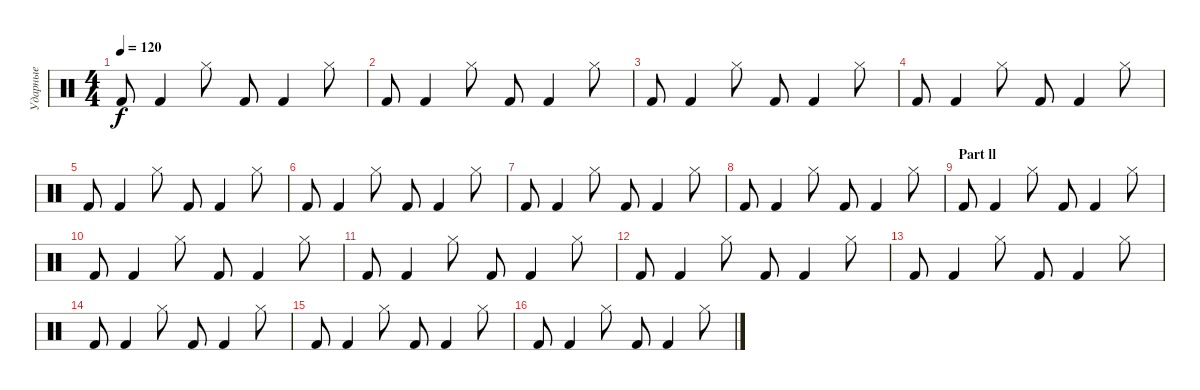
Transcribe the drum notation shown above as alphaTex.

\track ("Ударные" "Ударные") {instrument percussion}
\staff {score}
\articulation defaults
\ts (4 4)
\tempo 120
\clef neutral
\ks c "Kick (hit) 2".8{dy f} "Kick (hit) 2".4 "Hi-Hat (closed)".8 "Kick (hit) 2".8 "Kick (hit) 2".4 "Hi-Hat (closed)".8
|
"Kick (hit) 2".8 "Kick (hit) 2".4 "Hi-Hat (closed)".8 "Kick (hit) 2".8 "Kick (hit) 2".4 "Hi-Hat (closed)".8 |
"Kick (hit) 2".8 "Kick (hit) 2".4 "Hi-Hat (closed)".8 "Kick (hit) 2".8 "Kick (hit) 2".4 "Hi-Hat (closed)".8 |
"Kick (hit) 2".8 "Kick (hit) 2".4 "Hi-Hat (closed)".8 "Kick (hit) 2".8 "Kick (hit) 2".4 "Hi-Hat (closed)".8 |
"Kick (hit) 2".8 "Kick (hit) 2".4 "Hi-Hat (closed)".8 "Kick (hit) 2".8 "Kick (hit) 2".4 "Hi-Hat (closed)".8 |
"Kick (hit) 2".8 "Kick (hit) 2".4 "Hi-Hat (closed)".8 "Kick (hit) 2".8 "Kick (hit) 2".4 "Hi-Hat (closed)".8 |
"Kick (hit) 2".8 "Kick (hit) 2".4 "Hi-Hat (closed)".8 "Kick (hit) 2".8 "Kick (hit) 2".4 "Hi-Hat (closed)".8 |
"Kick (hit) 2".8 "Kick (hit) 2".4 "Hi-Hat (closed)".8 "Kick (hit) 2".8 "Kick (hit) 2".4 "Hi-Hat (closed)".8 |
\section ("" "Part ll")
"Kick (hit) 2".8 "Kick (hit) 2".4 "Hi-Hat (closed)".8 "Kick (hit) 2".8 "Kick (hit) 2".4 "Hi-Hat (closed)".8 |
"Kick (hit) 2".8 "Kick (hit) 2".4 "Hi-Hat (closed)".8 "Kick (hit) 2".8 "Kick (hit) 2".4 "Hi-Hat (closed)".8 |
"Kick (hit) 2".8 "Kick (hit) 2".4 "Hi-Hat (closed)".8 "Kick (hit) 2".8 "Kick (hit) 2".4 "Hi-Hat (closed)".8 |
"Kick (hit) 2".8 "Kick (hit) 2".4 "Hi-Hat (closed)".8 "Kick (hit) 2".8 "Kick (hit) 2".4 "Hi-Hat (closed)".8 |
"Kick (hit) 2".8 "Kick (hit) 2".4 "Hi-Hat (closed)".8 "Kick (hit) 2".8 "Kick (hit) 2".4 "Hi-Hat (closed)".8 |
"Kick (hit) 2".8 "Kick (hit) 2".4 "Hi-Hat (closed)".8 "Kick (hit) 2".8 "Kick (hit) 2".4 "Hi-Hat (closed)".8 |
"Kick (hit) 2".8 "Kick (hit) 2".4 "Hi-Hat (closed)".8 "Kick (hit) 2".8 "Kick (hit) 2".4 "Hi-Hat (closed)".8 |
"Kick (hit) 2".8 "Kick (hit) 2".4 "Hi-Hat (closed)".8 "Kick (hit) 2".8 "Kick (hit) 2".4 "Hi-Hat (closed)".8
